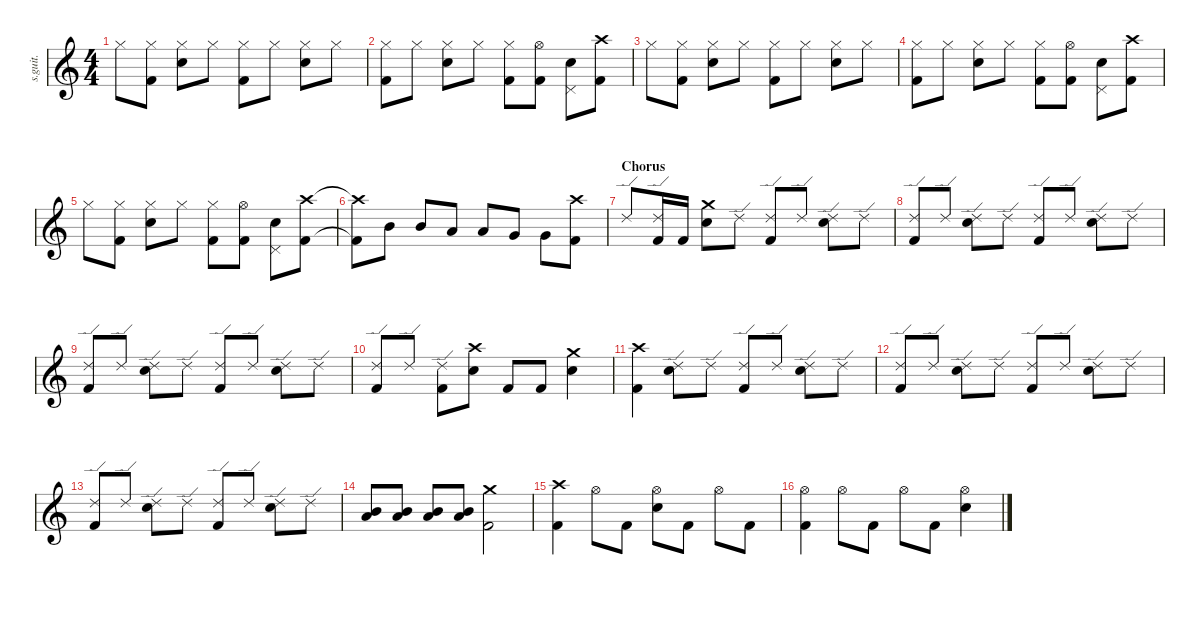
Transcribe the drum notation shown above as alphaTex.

\defaultSystemsLayout 4
\hideDynamics
\bracketExtendMode nobrackets
\track ("Nick Menza" "s.guit.") {instrument percussion}
\staff {score}
\articulation defaults
\ts (4 4)
\tempo (140 hide)
\clef g2
\ks c "Hi-Hat (closed)".8{lyrics (0 "") lyrics (1 "") lyrics (2 "") lyrics (3 "") lyrics (4 "") dy f}
("Hi-Hat (closed)" "Kick (hit) 2").8{lyrics (0 "") lyrics (1 "") lyrics (2 "") lyrics (3 "") lyrics (4 "")} ("Hi-Hat (closed)" "Snare (hit) 2").8{lyrics (0 "") lyrics (1 "") lyrics (2 "") lyrics (3 "") lyrics (4 "")} "Hi-Hat (closed)".8{lyrics (0 "") lyrics (1 "") lyrics (2 "") lyrics (3 "") lyrics (4 "")} ("Hi-Hat (closed)" "Kick (hit) 2").8{lyrics (0 "") lyrics (1 "") lyrics (2 "") lyrics (3 "") lyrics (4 "")} "Hi-Hat (closed)".8{lyrics (0 "") lyrics (1 "") lyrics (2 "") lyrics (3 "") lyrics (4 "")} ("Hi-Hat (closed)" "Snare (hit) 2").8{lyrics (0 "") lyrics (1 "") lyrics (2 "") lyrics (3 "") lyrics (4 "")} "Hi-Hat (closed)".8{lyrics (0 "") lyrics (1 "") lyrics (2 "") lyrics (3 "") lyrics (4 "")} |
("Hi-Hat (closed)" "Kick (hit) 2").8{lyrics (0 "") lyrics (1 "") lyrics (2 "") lyrics (3 "") lyrics (4 "")} "Hi-Hat (closed)".8{lyrics (0 "") lyrics (1 "") lyrics (2 "") lyrics (3 "") lyrics (4 "")} ("Hi-Hat (closed)" "Snare (hit) 2").8{lyrics (0 "") lyrics (1 "") lyrics (2 "") lyrics (3 "") lyrics (4 "")} "Hi-Hat (closed)".8{lyrics (0 "") lyrics (1 "") lyrics (2 "") lyrics (3 "") lyrics (4 "")} ("Hi-Hat (closed)" "Kick (hit) 2").8{lyrics (0 "") lyrics (1 "") lyrics (2 "") lyrics (3 "") lyrics (4 "")} ("Hi-Hat (open)" "Kick (hit) 2").8{lyrics (0 "") lyrics (1 "") lyrics (2 "") lyrics (3 "") lyrics (4 "")} ("Pedal Hi-Hat (hit)" "Snare (hit) 2").8{lyrics (0 "") lyrics (1 "") lyrics (2 "") lyrics (3 "") lyrics (4 "")} ("Crash high (hit)" "Kick (hit) 2").8{lyrics (0 "") lyrics (1 "") lyrics (2 "") lyrics (3 "") lyrics (4 "")} |
"Hi-Hat (closed)".8{lyrics (0 "") lyrics (1 "") lyrics (2 "") lyrics (3 "") lyrics (4 "")} ("Hi-Hat (closed)" "Kick (hit) 2").8{lyrics (0 "") lyrics (1 "") lyrics (2 "") lyrics (3 "") lyrics (4 "")} ("Hi-Hat (closed)" "Snare (hit) 2").8{lyrics (0 "") lyrics (1 "") lyrics (2 "") lyrics (3 "") lyrics (4 "")} "Hi-Hat (closed)".8{lyrics (0 "") lyrics (1 "") lyrics (2 "") lyrics (3 "") lyrics (4 "")} ("Hi-Hat (closed)" "Kick (hit) 2").8{lyrics (0 "") lyrics (1 "") lyrics (2 "") lyrics (3 "") lyrics (4 "")} "Hi-Hat (closed)".8{lyrics (0 "") lyrics (1 "") lyrics (2 "") lyrics (3 "") lyrics (4 "")} ("Hi-Hat (closed)" "Snare (hit) 2").8{lyrics (0 "") lyrics (1 "") lyrics (2 "") lyrics (3 "") lyrics (4 "")} "Hi-Hat (closed)".8{lyrics (0 "") lyrics (1 "") lyrics (2 "") lyrics (3 "") lyrics (4 "")} |
("Hi-Hat (closed)" "Kick (hit) 2").8{lyrics (0 "") lyrics (1 "") lyrics (2 "") lyrics (3 "") lyrics (4 "")} "Hi-Hat (closed)".8{lyrics (0 "") lyrics (1 "") lyrics (2 "") lyrics (3 "") lyrics (4 "")} ("Hi-Hat (closed)" "Snare (hit) 2").8{lyrics (0 "") lyrics (1 "") lyrics (2 "") lyrics (3 "") lyrics (4 "")} "Hi-Hat (closed)".8{lyrics (0 "") lyrics (1 "") lyrics (2 "") lyrics (3 "") lyrics (4 "")} ("Hi-Hat (closed)" "Kick (hit) 2").8{lyrics (0 "") lyrics (1 "") lyrics (2 "") lyrics (3 "") lyrics (4 "")} ("Hi-Hat (open)" "Kick (hit) 2").8{lyrics (0 "") lyrics (1 "") lyrics (2 "") lyrics (3 "") lyrics (4 "")} ("Pedal Hi-Hat (hit)" "Snare (hit) 2").8{lyrics (0 "") lyrics (1 "") lyrics (2 "") lyrics (3 "") lyrics (4 "")} ("Crash high (hit)" "Kick (hit) 2").8{lyrics (0 "") lyrics (1 "") lyrics (2 "") lyrics (3 "") lyrics (4 "")} |
"Hi-Hat (closed)".8{lyrics (0 "") lyrics (1 "") lyrics (2 "") lyrics (3 "") lyrics (4 "")} ("Hi-Hat (closed)" "Kick (hit) 2").8{lyrics (0 "") lyrics (1 "") lyrics (2 "") lyrics (3 "") lyrics (4 "")} ("Hi-Hat (closed)" "Snare (hit) 2").8{lyrics (0 "") lyrics (1 "") lyrics (2 "") lyrics (3 "") lyrics (4 "")} "Hi-Hat (closed)".8{lyrics (0 "") lyrics (1 "") lyrics (2 "") lyrics (3 "") lyrics (4 "")} ("Hi-Hat (closed)" "Kick (hit) 2").8{lyrics (0 "") lyrics (1 "") lyrics (2 "") lyrics (3 "") lyrics (4 "")} ("Hi-Hat (open)" "Kick (hit) 2").8{lyrics (0 "") lyrics (1 "") lyrics (2 "") lyrics (3 "") lyrics (4 "")} ("Pedal Hi-Hat (hit)" "Snare (hit) 2").8{lyrics (0 "") lyrics (1 "") lyrics (2 "") lyrics (3 "") lyrics (4 "")} ("Crash high (hit)" "Kick (hit) 2").8{lyrics (0 "") lyrics (1 "") lyrics (2 "") lyrics (3 "") lyrics (4 "")} |
("Crash high (hit)"{t} "Kick (hit) 2"{t}).8{lyrics (0 "") lyrics (1 "") lyrics (2 "") lyrics (3 "") lyrics (4 "")} "Mid Tom (hit)".8{lyrics (0 "") lyrics (1 "") lyrics (2 "") lyrics (3 "") lyrics (4 "")} "Mid Tom (hit)".8{lyrics (0 "") lyrics (1 "") lyrics (2 "") lyrics (3 "") lyrics (4 "")} "Low Tom (hit)".8{lyrics (0 "") lyrics (1 "") lyrics (2 "") lyrics (3 "") lyrics (4 "")} "Low Tom (hit)".8{lyrics (0 "") lyrics (1 "") lyrics (2 "") lyrics (3 "") lyrics (4 "")} "Very Low Tom (hit)".8{lyrics (0 "") lyrics (1 "") lyrics (2 "") lyrics (3 "") lyrics (4 "")} "Very Low Tom (hit)".8{lyrics (0 "") lyrics (1 "") lyrics (2 "") lyrics (3 "") lyrics (4 "")} ("Crash high (hit)" "Kick (hit) 2").8{lyrics (0 "") lyrics (1 "") lyrics (2 "") lyrics (3 "") lyrics (4 "")} |
\section ("" "Chorus")
"Ride (edge) 2".8{lyrics (0 "") lyrics (1 "") lyrics (2 "") lyrics (3 "") lyrics (4 "")} ("Ride (edge) 2" "Kick (hit) 2").16{lyrics (0 "") lyrics (1 "") lyrics (2 "") lyrics (3 "") lyrics (4 "")} "Kick (hit) 2".16{lyrics (0 "") lyrics (1 "") lyrics (2 "") lyrics (3 "") lyrics (4 "") dy fff} ("Crash medium (hit)" "Snare (hit) 2").8{lyrics (0 "") lyrics (1 "") lyrics (2 "") lyrics (3 "") lyrics (4 "") dy f} "Ride (edge) 2".8{lyrics (0 "") lyrics (1 "") lyrics (2 "") lyrics (3 "") lyrics (4 "")} ("Ride (edge) 2" "Kick (hit) 2").8{lyrics (0 "") lyrics (1 "") lyrics (2 "") lyrics (3 "") lyrics (4 "")} "Ride (edge) 2".8{lyrics (0 "") lyrics (1 "") lyrics (2 "") lyrics (3 "") lyrics (4 "")} ("Ride (edge) 2" "Snare (hit) 2").8{lyrics (0 "") lyrics (1 "") lyrics (2 "") lyrics (3 "") lyrics (4 "")} "Ride (edge) 2".8{lyrics (0 "") lyrics (1 "") lyrics (2 "") lyrics (3 "") lyrics (4 "")} |
("Ride (edge) 2" "Kick (hit) 2").8{lyrics (0 "") lyrics (1 "") lyrics (2 "") lyrics (3 "") lyrics (4 "")} "Ride (edge) 2".8{lyrics (0 "") lyrics (1 "") lyrics (2 "") lyrics (3 "") lyrics (4 "")} ("Ride (edge) 2" "Snare (hit) 2").8{lyrics (0 "") lyrics (1 "") lyrics (2 "") lyrics (3 "") lyrics (4 "")} "Ride (edge) 2".8{lyrics (0 "") lyrics (1 "") lyrics (2 "") lyrics (3 "") lyrics (4 "")} ("Ride (edge) 2" "Kick (hit) 2").8{lyrics (0 "") lyrics (1 "") lyrics (2 "") lyrics (3 "") lyrics (4 "")} "Ride (edge) 2".8{lyrics (0 "") lyrics (1 "") lyrics (2 "") lyrics (3 "") lyrics (4 "")} ("Ride (edge) 2" "Snare (hit) 2").8{lyrics (0 "") lyrics (1 "") lyrics (2 "") lyrics (3 "") lyrics (4 "")} "Ride (edge) 2".8{lyrics (0 "") lyrics (1 "") lyrics (2 "") lyrics (3 "") lyrics (4 "")} |
("Ride (edge) 2" "Kick (hit) 2").8{lyrics (0 "") lyrics (1 "") lyrics (2 "") lyrics (3 "") lyrics (4 "")} "Ride (edge) 2".8{lyrics (0 "") lyrics (1 "") lyrics (2 "") lyrics (3 "") lyrics (4 "")} ("Ride (edge) 2" "Snare (hit) 2").8{lyrics (0 "") lyrics (1 "") lyrics (2 "") lyrics (3 "") lyrics (4 "")} "Ride (edge) 2".8{lyrics (0 "") lyrics (1 "") lyrics (2 "") lyrics (3 "") lyrics (4 "")} ("Ride (edge) 2" "Kick (hit) 2").8{lyrics (0 "") lyrics (1 "") lyrics (2 "") lyrics (3 "") lyrics (4 "")} "Ride (edge) 2".8{lyrics (0 "") lyrics (1 "") lyrics (2 "") lyrics (3 "") lyrics (4 "")} ("Ride (edge) 2" "Snare (hit) 2").8{lyrics (0 "") lyrics (1 "") lyrics (2 "") lyrics (3 "") lyrics (4 "")} "Ride (edge) 2".8{lyrics (0 "") lyrics (1 "") lyrics (2 "") lyrics (3 "") lyrics (4 "")} |
("Ride (edge) 2" "Kick (hit) 2").8{lyrics (0 "") lyrics (1 "") lyrics (2 "") lyrics (3 "") lyrics (4 "")} "Ride (edge) 2".8{lyrics (0 "") lyrics (1 "") lyrics (2 "") lyrics (3 "") lyrics (4 "")} ("Ride (edge) 2" "Kick (hit) 2").8{lyrics (0 "") lyrics (1 "") lyrics (2 "") lyrics (3 "") lyrics (4 "")} ("Crash high (hit)" "Snare (hit) 2").8{lyrics (0 "") lyrics (1 "") lyrics (2 "") lyrics (3 "") lyrics (4 "")} "Kick (hit) 2".8{lyrics (0 "") lyrics (1 "") lyrics (2 "") lyrics (3 "") lyrics (4 "") dy fff} "Kick (hit) 2".8{lyrics (0 "") lyrics (1 "") lyrics (2 "") lyrics (3 "") lyrics (4 "")} ("Crash medium (hit)" "Snare (hit) 2").4{lyrics (0 "") lyrics (1 "") lyrics (2 "") lyrics (3 "") lyrics (4 "") dy f} |
("Crash high (hit)" "Kick (hit) 2").4{lyrics (0 "") lyrics (1 "") lyrics (2 "") lyrics (3 "") lyrics (4 "")} ("Ride (edge) 2" "Snare (hit) 2").8{lyrics (0 "") lyrics (1 "") lyrics (2 "") lyrics (3 "") lyrics (4 "")} "Ride (edge) 2".8{lyrics (0 "") lyrics (1 "") lyrics (2 "") lyrics (3 "") lyrics (4 "")} ("Ride (edge) 2" "Kick (hit) 2").8{lyrics (0 "") lyrics (1 "") lyrics (2 "") lyrics (3 "") lyrics (4 "")} "Ride (edge) 2".8{lyrics (0 "") lyrics (1 "") lyrics (2 "") lyrics (3 "") lyrics (4 "")} ("Ride (edge) 2" "Snare (hit) 2").8{lyrics (0 "") lyrics (1 "") lyrics (2 "") lyrics (3 "") lyrics (4 "")} "Ride (edge) 2".8{lyrics (0 "") lyrics (1 "") lyrics (2 "") lyrics (3 "") lyrics (4 "")} |
("Ride (edge) 2" "Kick (hit) 2").8{lyrics (0 "") lyrics (1 "") lyrics (2 "") lyrics (3 "") lyrics (4 "")} "Ride (edge) 2".8{lyrics (0 "") lyrics (1 "") lyrics (2 "") lyrics (3 "") lyrics (4 "")} ("Ride (edge) 2" "Snare (hit) 2").8{lyrics (0 "") lyrics (1 "") lyrics (2 "") lyrics (3 "") lyrics (4 "")} "Ride (edge) 2".8{lyrics (0 "") lyrics (1 "") lyrics (2 "") lyrics (3 "") lyrics (4 "")} ("Ride (edge) 2" "Kick (hit) 2").8{lyrics (0 "") lyrics (1 "") lyrics (2 "") lyrics (3 "") lyrics (4 "")} "Ride (edge) 2".8{lyrics (0 "") lyrics (1 "") lyrics (2 "") lyrics (3 "") lyrics (4 "")} ("Ride (edge) 2" "Snare (hit) 2").8{lyrics (0 "") lyrics (1 "") lyrics (2 "") lyrics (3 "") lyrics (4 "")} "Ride (edge) 2".8{lyrics (0 "") lyrics (1 "") lyrics (2 "") lyrics (3 "") lyrics (4 "")} |
("Ride (edge) 2" "Kick (hit) 2").8{lyrics (0 "") lyrics (1 "") lyrics (2 "") lyrics (3 "") lyrics (4 "")} "Ride (edge) 2".8{lyrics (0 "") lyrics (1 "") lyrics (2 "") lyrics (3 "") lyrics (4 "")} ("Ride (edge) 2" "Snare (hit) 2").8{lyrics (0 "") lyrics (1 "") lyrics (2 "") lyrics (3 "") lyrics (4 "")} "Ride (edge) 2".8{lyrics (0 "") lyrics (1 "") lyrics (2 "") lyrics (3 "") lyrics (4 "")} ("Ride (edge) 2" "Kick (hit) 2").8{lyrics (0 "") lyrics (1 "") lyrics (2 "") lyrics (3 "") lyrics (4 "")} "Ride (edge) 2".8{lyrics (0 "") lyrics (1 "") lyrics (2 "") lyrics (3 "") lyrics (4 "")} ("Ride (edge) 2" "Snare (hit) 2").8{lyrics (0 "") lyrics (1 "") lyrics (2 "") lyrics (3 "") lyrics (4 "")} "Ride (edge) 2".8{lyrics (0 "") lyrics (1 "") lyrics (2 "") lyrics (3 "") lyrics (4 "")} |
("Mid Tom (hit)" "Low Tom (hit)").8{lyrics (0 "") lyrics (1 "") lyrics (2 "") lyrics (3 "") lyrics (4 "")} ("Mid Tom (hit)" "Low Tom (hit)").8{lyrics (0 "") lyrics (1 "") lyrics (2 "") lyrics (3 "") lyrics (4 "")} ("Mid Tom (hit)" "Low Tom (hit)").8{lyrics (0 "") lyrics (1 "") lyrics (2 "") lyrics (3 "") lyrics (4 "")} ("Mid Tom (hit)" "Low Tom (hit)").8{lyrics (0 "") lyrics (1 "") lyrics (2 "") lyrics (3 "") lyrics (4 "")} ("Crash medium (hit)" "Kick (hit) 2").2{lyrics (0 "") lyrics (1 "") lyrics (2 "") lyrics (3 "") lyrics (4 "")} |
("Crash high (hit)" "Kick (hit) 2").4{lyrics (0 "") lyrics (1 "") lyrics (2 "") lyrics (3 "") lyrics (4 "")} "Hi-Hat (open)".8{lyrics (0 "") lyrics (1 "") lyrics (2 "") lyrics (3 "") lyrics (4 "")} "Kick (hit) 2".8{lyrics (0 "") lyrics (1 "") lyrics (2 "") lyrics (3 "") lyrics (4 "") dy fff} ("Hi-Hat (open)" "Snare (hit) 2").8{lyrics (0 "") lyrics (1 "") lyrics (2 "") lyrics (3 "") lyrics (4 "") dy f} "Kick (hit) 2".8{lyrics (0 "") lyrics (1 "") lyrics (2 "") lyrics (3 "") lyrics (4 "") dy fff} "Hi-Hat (open)".8{lyrics (0 "") lyrics (1 "") lyrics (2 "") lyrics (3 "") lyrics (4 "") dy f} "Kick (hit) 2".8{lyrics (0 "") lyrics (1 "") lyrics (2 "") lyrics (3 "") lyrics (4 "") dy fff} |
("Hi-Hat (open)" "Kick (hit) 2").4{lyrics (0 "") lyrics (1 "") lyrics (2 "") lyrics (3 "") lyrics (4 "")} "Hi-Hat (open)".8{lyrics (0 "") lyrics (1 "") lyrics (2 "") lyrics (3 "") lyrics (4 "") dy f} "Kick (hit) 2".8{lyrics (0 "") lyrics (1 "") lyrics (2 "") lyrics (3 "") lyrics (4 "") dy fff} "Hi-Hat (open)".8{lyrics (0 "") lyrics (1 "") lyrics (2 "") lyrics (3 "") lyrics (4 "") dy f} "Kick (hit) 2".8{lyrics (0 "") lyrics (1 "") lyrics (2 "") lyrics (3 "") lyrics (4 "") dy fff} ("Hi-Hat (open)" "Snare (hit) 2").4{lyrics (0 "") lyrics (1 "") lyrics (2 "") lyrics (3 "") lyrics (4 "") dy f}
